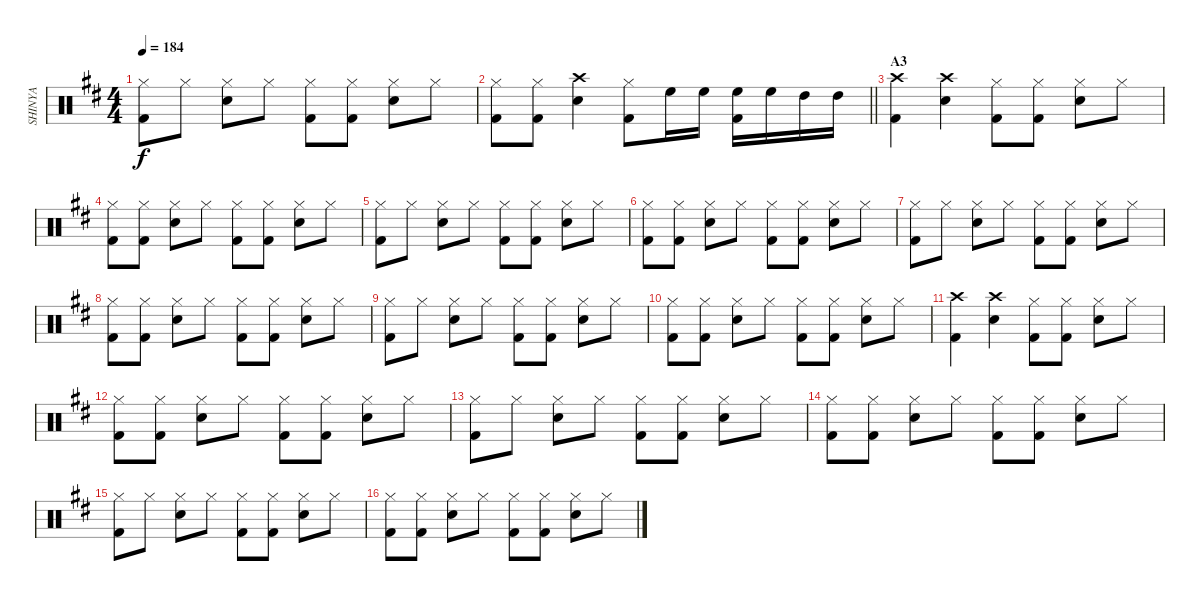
\track ("SHINYA" "SHINYA") {instrument percussion}
\staff {score}
\articulation defaults
\ts (4 4)
\tempo 184
\clef neutral
\ks bminor
("Hi-Hat (closed)" "Kick (hit) 2").8{dy f} "Hi-Hat (closed)".8 ("Hi-Hat (closed)" "Snare (hit) 2").8 "Hi-Hat (closed)".8 ("Hi-Hat (closed)" "Kick (hit) 2").8 ("Hi-Hat (closed)" "Kick (hit) 2").8 ("Hi-Hat (closed)" "Snare (hit) 2").8 "Hi-Hat (closed)".8 |
\barLineRight lightlight
("Hi-Hat (closed)" "Kick (hit) 2").8 ("Hi-Hat (closed)" "Kick (hit) 2").8 ("Crash high (hit)" "Snare (hit) 2").4 ("Hi-Hat (closed)" "Kick (hit) 2").8 "High Floor Tom (hit)".16 "High Floor Tom (hit)".16 ("High Floor Tom (hit)" "Kick (hit) 2").16 "High Floor Tom (hit)".16 "High Tom (hit)".16 "High Tom (hit)".16 |
\section ("" "A3")
("Crash high (hit)" "Kick (hit) 2").4 ("Crash high (hit)" "Snare (hit) 2").4 ("Hi-Hat (closed)" "Kick (hit) 2").8 ("Hi-Hat (closed)" "Kick (hit) 2").8 ("Hi-Hat (closed)" "Snare (hit) 2").8 "Hi-Hat (closed)".8 |
("Hi-Hat (closed)" "Kick (hit) 2").8 ("Hi-Hat (closed)" "Kick (hit) 2").8 ("Hi-Hat (closed)" "Snare (hit) 2").8 "Hi-Hat (closed)".8 ("Hi-Hat (closed)" "Kick (hit) 2").8 ("Hi-Hat (closed)" "Kick (hit) 2").8 ("Hi-Hat (closed)" "Snare (hit) 2").8 "Hi-Hat (closed)".8 |
("Hi-Hat (closed)" "Kick (hit) 2").8 "Hi-Hat (closed)".8 ("Hi-Hat (closed)" "Snare (hit) 2").8 "Hi-Hat (closed)".8 ("Hi-Hat (closed)" "Kick (hit) 2").8 ("Hi-Hat (closed)" "Kick (hit) 2").8 ("Hi-Hat (closed)" "Snare (hit) 2").8 "Hi-Hat (closed)".8 |
("Hi-Hat (closed)" "Kick (hit) 2").8 ("Hi-Hat (closed)" "Kick (hit) 2").8 ("Hi-Hat (closed)" "Snare (hit) 2").8 "Hi-Hat (closed)".8 ("Hi-Hat (closed)" "Kick (hit) 2").8 ("Hi-Hat (closed)" "Kick (hit) 2").8 ("Hi-Hat (closed)" "Snare (hit) 2").8 "Hi-Hat (closed)".8 |
("Hi-Hat (closed)" "Kick (hit) 2").8 "Hi-Hat (closed)".8 ("Hi-Hat (closed)" "Snare (hit) 2").8 "Hi-Hat (closed)".8 ("Hi-Hat (closed)" "Kick (hit) 2").8 ("Hi-Hat (closed)" "Kick (hit) 2").8 ("Hi-Hat (closed)" "Snare (hit) 2").8 "Hi-Hat (closed)".8 |
("Hi-Hat (closed)" "Kick (hit) 2").8 ("Hi-Hat (closed)" "Kick (hit) 2").8 ("Hi-Hat (closed)" "Snare (hit) 2").8 "Hi-Hat (closed)".8 ("Hi-Hat (closed)" "Kick (hit) 2").8 ("Hi-Hat (closed)" "Kick (hit) 2").8 ("Hi-Hat (closed)" "Snare (hit) 2").8 "Hi-Hat (closed)".8 |
("Hi-Hat (closed)" "Kick (hit) 2").8 "Hi-Hat (closed)".8 ("Hi-Hat (closed)" "Snare (hit) 2").8 "Hi-Hat (closed)".8 ("Hi-Hat (closed)" "Kick (hit) 2").8 ("Hi-Hat (closed)" "Kick (hit) 2").8 ("Hi-Hat (closed)" "Snare (hit) 2").8 "Hi-Hat (closed)".8 |
("Hi-Hat (closed)" "Kick (hit) 2").8 ("Hi-Hat (closed)" "Kick (hit) 2").8 ("Hi-Hat (closed)" "Snare (hit) 2").8 "Hi-Hat (closed)".8 ("Hi-Hat (closed)" "Kick (hit) 2").8 ("Hi-Hat (closed)" "Kick (hit) 2").8 ("Hi-Hat (closed)" "Snare (hit) 2").8 "Hi-Hat (closed)".8 |
("Crash high (hit)" "Kick (hit) 2").4 ("Crash high (hit)" "Snare (hit) 2").4 ("Hi-Hat (closed)" "Kick (hit) 2").8 ("Hi-Hat (closed)" "Kick (hit) 2").8 ("Hi-Hat (closed)" "Snare (hit) 2").8 "Hi-Hat (closed)".8 |
("Hi-Hat (closed)" "Kick (hit) 2").8 ("Hi-Hat (closed)" "Kick (hit) 2").8 ("Hi-Hat (closed)" "Snare (hit) 2").8 "Hi-Hat (closed)".8 ("Hi-Hat (closed)" "Kick (hit) 2").8 ("Hi-Hat (closed)" "Kick (hit) 2").8 ("Hi-Hat (closed)" "Snare (hit) 2").8 "Hi-Hat (closed)".8 |
("Hi-Hat (closed)" "Kick (hit) 2").8 "Hi-Hat (closed)".8 ("Hi-Hat (closed)" "Snare (hit) 2").8 "Hi-Hat (closed)".8 ("Hi-Hat (closed)" "Kick (hit) 2").8 ("Hi-Hat (closed)" "Kick (hit) 2").8 ("Hi-Hat (closed)" "Snare (hit) 2").8 "Hi-Hat (closed)".8 |
("Hi-Hat (closed)" "Kick (hit) 2").8 ("Hi-Hat (closed)" "Kick (hit) 2").8 ("Hi-Hat (closed)" "Snare (hit) 2").8 "Hi-Hat (closed)".8 ("Hi-Hat (closed)" "Kick (hit) 2").8 ("Hi-Hat (closed)" "Kick (hit) 2").8 ("Hi-Hat (closed)" "Snare (hit) 2").8 "Hi-Hat (closed)".8 |
("Hi-Hat (closed)" "Kick (hit) 2").8 "Hi-Hat (closed)".8 ("Hi-Hat (closed)" "Snare (hit) 2").8 "Hi-Hat (closed)".8 ("Hi-Hat (closed)" "Kick (hit) 2").8 ("Hi-Hat (closed)" "Kick (hit) 2").8 ("Hi-Hat (closed)" "Snare (hit) 2").8 "Hi-Hat (closed)".8 |
("Hi-Hat (closed)" "Kick (hit) 2").8 ("Hi-Hat (closed)" "Kick (hit) 2").8 ("Hi-Hat (closed)" "Snare (hit) 2").8 "Hi-Hat (closed)".8 ("Hi-Hat (closed)" "Kick (hit) 2").8 ("Hi-Hat (closed)" "Kick (hit) 2").8 ("Hi-Hat (closed)" "Snare (hit) 2").8 "Hi-Hat (closed)".8
